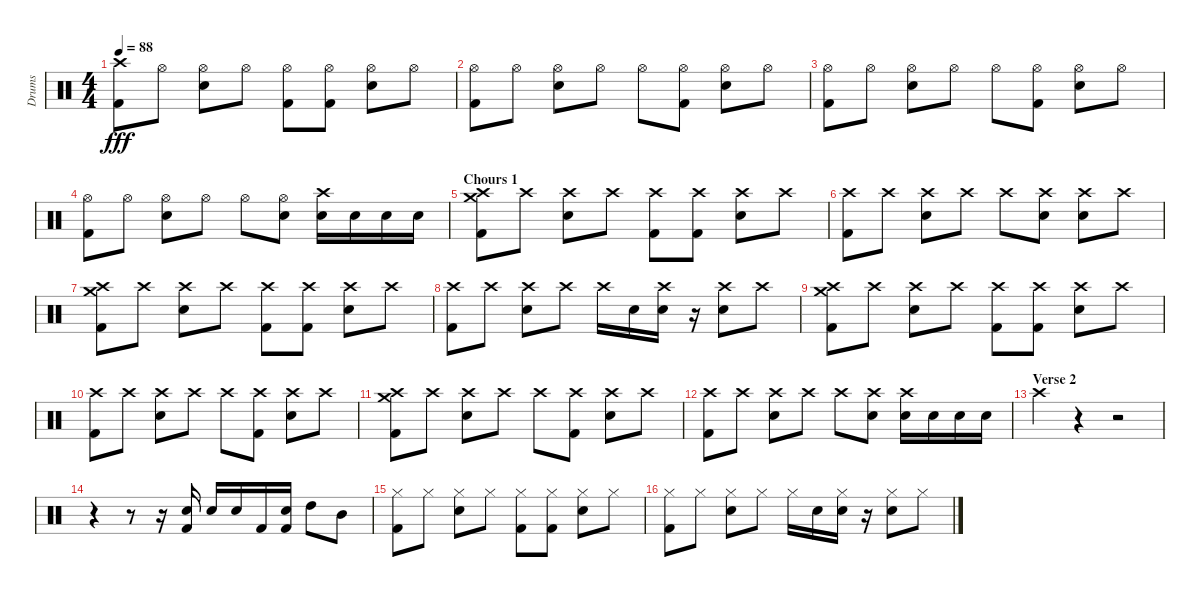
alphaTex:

\track ("Drums" "Drums") {instrument percussion}
\staff {score}
\articulation defaults
\ts (4 4)
\tempo 88
\clef neutral
\ks c
("Crash high (hit)" "Kick (hit) 2").8{dy fff} "Hi-Hat (open)".8 ("Hi-Hat (open)" "Electric Snare (hit)").8 "Hi-Hat (open)".8 ("Hi-Hat (open)" "Kick (hit) 2").8 ("Hi-Hat (open)" "Kick (hit) 2").8 ("Hi-Hat (open)" "Electric Snare (hit)").8 "Hi-Hat (open)".8 |
("Hi-Hat (open)" "Kick (hit) 2").8 "Hi-Hat (open)".8 ("Hi-Hat (open)" "Electric Snare (hit)").8 "Hi-Hat (open)".8 "Hi-Hat (open)".8 ("Hi-Hat (open)" "Kick (hit) 2").8 ("Hi-Hat (open)" "Electric Snare (hit)").8 "Hi-Hat (open)".8 |
("Hi-Hat (open)" "Kick (hit) 2").8 "Hi-Hat (open)".8 ("Hi-Hat (open)" "Electric Snare (hit)").8 "Hi-Hat (open)".8 "Hi-Hat (open)".8 ("Hi-Hat (open)" "Kick (hit) 2").8 ("Hi-Hat (open)" "Electric Snare (hit)").8 "Hi-Hat (open)".8 |
("Hi-Hat (open)" "Kick (hit) 2").8 "Hi-Hat (open)".8 ("Hi-Hat (open)" "Electric Snare (hit)").8 "Hi-Hat (open)".8 "Hi-Hat (open)".8 ("Hi-Hat (open)" "Electric Snare (hit)").8 ("Crash high (hit)" "Electric Snare (hit)").16 "Electric Snare (hit)".16 "Electric Snare (hit)".16 "Electric Snare (hit)".16 |
\section ("" "Chours 1")
("Crash high (hit)" "Crash medium (hit)" "Kick (hit) 2").8 "Crash high (hit)".8 ("Crash high (hit)" "Electric Snare (hit)").8 "Crash high (hit)".8 ("Crash high (hit)" "Kick (hit) 2").8 ("Crash high (hit)" "Kick (hit) 2").8 ("Crash high (hit)" "Electric Snare (hit)").8 "Crash high (hit)".8 |
("Crash high (hit)" "Kick (hit) 2").8 "Crash high (hit)".8 ("Crash high (hit)" "Electric Snare (hit)").8 "Crash high (hit)".8 "Crash high (hit)".8 ("Crash high (hit)" "Electric Snare (hit)").8 ("Crash high (hit)" "Electric Snare (hit)").8 "Crash high (hit)".8 |
("Crash high (hit)" "Crash medium (hit)" "Kick (hit) 2").8 "Crash high (hit)".8 ("Crash high (hit)" "Electric Snare (hit)").8 "Crash high (hit)".8 ("Crash high (hit)" "Kick (hit) 2").8 ("Crash high (hit)" "Kick (hit) 2").8 ("Crash high (hit)" "Electric Snare (hit)").8 "Crash high (hit)".8 |
("Crash high (hit)" "Kick (hit) 2").8 "Crash high (hit)".8 ("Crash high (hit)" "Electric Snare (hit)").8 "Crash high (hit)".8 "Crash high (hit)".16 "Electric Snare (hit)".16 ("Crash high (hit)" "Electric Snare (hit)").16 r.16 ("Crash high (hit)" "Electric Snare (hit)").8 "Crash high (hit)".8 |
("Crash high (hit)" "Crash medium (hit)" "Kick (hit) 2").8 "Crash high (hit)".8 ("Crash high (hit)" "Electric Snare (hit)").8 "Crash high (hit)".8 ("Crash high (hit)" "Kick (hit) 2").8 ("Crash high (hit)" "Kick (hit) 2").8 ("Crash high (hit)" "Electric Snare (hit)").8 "Crash high (hit)".8 |
("Crash high (hit)" "Kick (hit) 2").8 "Crash high (hit)".8 ("Crash high (hit)" "Electric Snare (hit)").8 "Crash high (hit)".8 "Crash high (hit)".8 ("Crash high (hit)" "Kick (hit) 2").8 ("Crash high (hit)" "Electric Snare (hit)").8 "Crash high (hit)".8 |
("Crash high (hit)" "Crash medium (hit)" "Kick (hit) 2").8 "Crash high (hit)".8 ("Crash high (hit)" "Electric Snare (hit)").8 "Crash high (hit)".8 "Crash high (hit)".8 ("Crash high (hit)" "Kick (hit) 2").8 ("Crash high (hit)" "Electric Snare (hit)").8 "Crash high (hit)".8 |
("Crash high (hit)" "Kick (hit) 2").8 "Crash high (hit)".8 ("Crash high (hit)" "Electric Snare (hit)").8 "Crash high (hit)".8 "Crash high (hit)".8 ("Crash high (hit)" "Electric Snare (hit)").8 ("Crash high (hit)" "Electric Snare (hit)").16 "Electric Snare (hit)".16 "Electric Snare (hit)".16 "Electric Snare (hit)".16 |
\section ("" "Verse 2")
"Crash high (hit)".4 r.4 r.2 |
r.4 r.8 r.16 ("Electric Snare (hit)" "Kick (hit) 2").16 "Electric Snare (hit)".16 "Electric Snare (hit)".16 "Kick (hit) 2".16 ("Electric Snare (hit)" "Kick (hit) 2").16 "High Tom (hit)".8 "Mid Tom (hit)".8 |
("Hi-Hat (closed)" "Kick (hit) 2").8 "Hi-Hat (closed)".8 ("Hi-Hat (closed)" "Electric Snare (hit)").8 "Hi-Hat (closed)".8 ("Hi-Hat (closed)" "Kick (hit) 2").8 ("Hi-Hat (closed)" "Kick (hit) 2").8 ("Hi-Hat (closed)" "Electric Snare (hit)").8 "Hi-Hat (closed)".8 |
("Hi-Hat (closed)" "Kick (hit) 2").8 "Hi-Hat (closed)".8 ("Hi-Hat (closed)" "Electric Snare (hit)").8 "Hi-Hat (closed)".8 "Hi-Hat (closed)".16 "Electric Snare (hit)".16 ("Hi-Hat (closed)" "Electric Snare (hit)").16 r.16 ("Hi-Hat (closed)" "Electric Snare (hit)").8 "Hi-Hat (closed)".8
